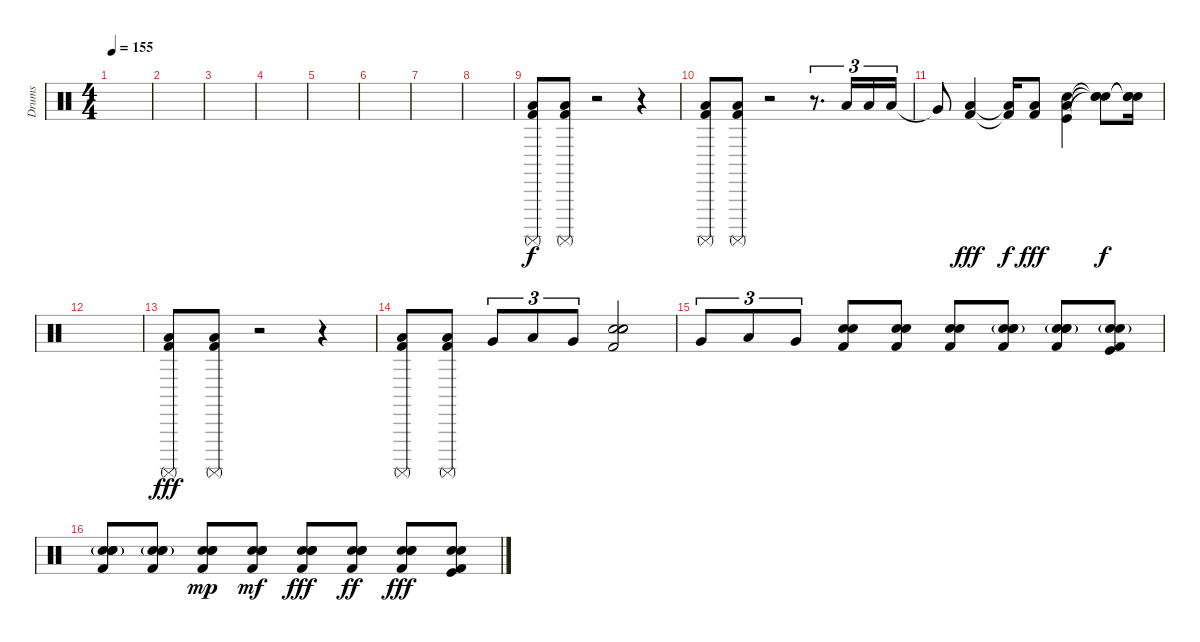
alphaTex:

\track ("Drums" "Drums") {instrument percussion}
\staff {score}
\articulation defaults
\ts (4 4)
\tempo 155
\clef neutral
\ks c
|
|
|
|
|
|
|
|
("Surdo (mute)" "Low Floor Tom (hit)" "Kick (hit) 2").8 ("Surdo (mute)" "Low Floor Tom (hit)" "Kick (hit) 2").8 r.2 r.4 |
("Surdo (mute)" "Low Floor Tom (hit)" "Kick (hit) 2").8 ("Surdo (mute)" "Low Floor Tom (hit)" "Kick (hit) 2").8 r.2 r.8{d tu (3 2)} "Low Tom (hit)".16{tu (3 2)} "Low Tom (hit)".16{tu (3 2)} "Low Tom (hit)".16{tu (3 2)} |
"Very Low Tom (hit)"{t}.8{dy f} ("Kick (hit) 2" "Low Floor Tom (hit)").4{dy fff} ("Kick (hit) 2"{t} "Low Floor Tom (hit)"{t}).16{dy f} ("Kick (hit) 2" "Low Floor Tom (hit)").8{dy fff} ("Kick (hit)" "Snare (hit) 2" "Low Floor Tom (hit)").4 ("Snare (hit)"{t} "Snare (hit)"{t} "Snare (hit)"{t}).8{dy f} ("Snare (hit)"{t} "Snare (hit)"{t} "Snare (hit)"{t}).16 |
|
("Surdo (mute)" "Low Floor Tom (hit)" "Kick (hit) 2").8{dy fff} ("Surdo (mute)" "Low Floor Tom (hit)" "Kick (hit) 2").8 r.2 r.4 |
("Surdo (mute)" "Low Floor Tom (hit)" "Kick (hit) 2").8 ("Surdo (mute)" "Low Floor Tom (hit)" "Kick (hit) 2").8 "Very Low Tom (hit)".8{tu (3 2)} "Low Floor Tom (hit)".8{tu (3 2)} "Very Low Tom (hit)".8{tu (3 2)} ("Kick (hit) 2" "Snare (hit) 2" "Snare (hit) 2" "Electric Snare (hit)").2 |
"Very Low Tom (hit)".8{tu (3 2)} "Low Floor Tom (hit)".8{tu (3 2)} "Very Low Tom (hit)".8{tu (3 2)} ("Kick (hit) 2" "Snare (hit) 2" "Electric Snare (hit)").8 ("Kick (hit) 2" "Snare (hit) 2" "Electric Snare (hit)").8 ("Kick (hit) 2" "Snare (hit) 2" "Electric Snare (hit)").8 ("Kick (hit) 2" "Snare (hit) 2" "Snare (hit) 2"{g} "Electric Snare (hit)").8 ("Kick (hit) 2" "Snare (hit) 2" "Snare (hit) 2"{g} "Electric Snare (hit)").8 ("Kick (hit) 2" "Kick (hit)" "Snare (hit) 2"{g} "Electric Snare (hit)").8 |
("Kick (hit) 2" "Snare (hit) 2" "Snare (hit) 2"{g} "Electric Snare (hit)").8 ("Kick (hit) 2" "Snare (hit) 2" "Snare (hit) 2"{g} "Electric Snare (hit)").8 ("Kick (hit) 2" "Snare (hit) 2" "Snare (hit) 2" "Electric Snare (hit)").8{dy mp} ("Kick (hit) 2" "Snare (hit) 2" "Snare (hit) 2" "Electric Snare (hit)").8{dy mf} ("Kick (hit) 2" "Snare (hit) 2" "Snare (hit) 2" "Electric Snare (hit)").8{dy fff} ("Kick (hit) 2" "Snare (hit) 2" "Snare (hit) 2" "Electric Snare (hit)").8{dy ff} ("Kick (hit) 2" "Snare (hit) 2" "Snare (hit) 2" "Electric Snare (hit)").8{dy fff} ("Kick (hit) 2" "Kick (hit)" "Snare (hit) 2" "Electric Snare (hit)").8
